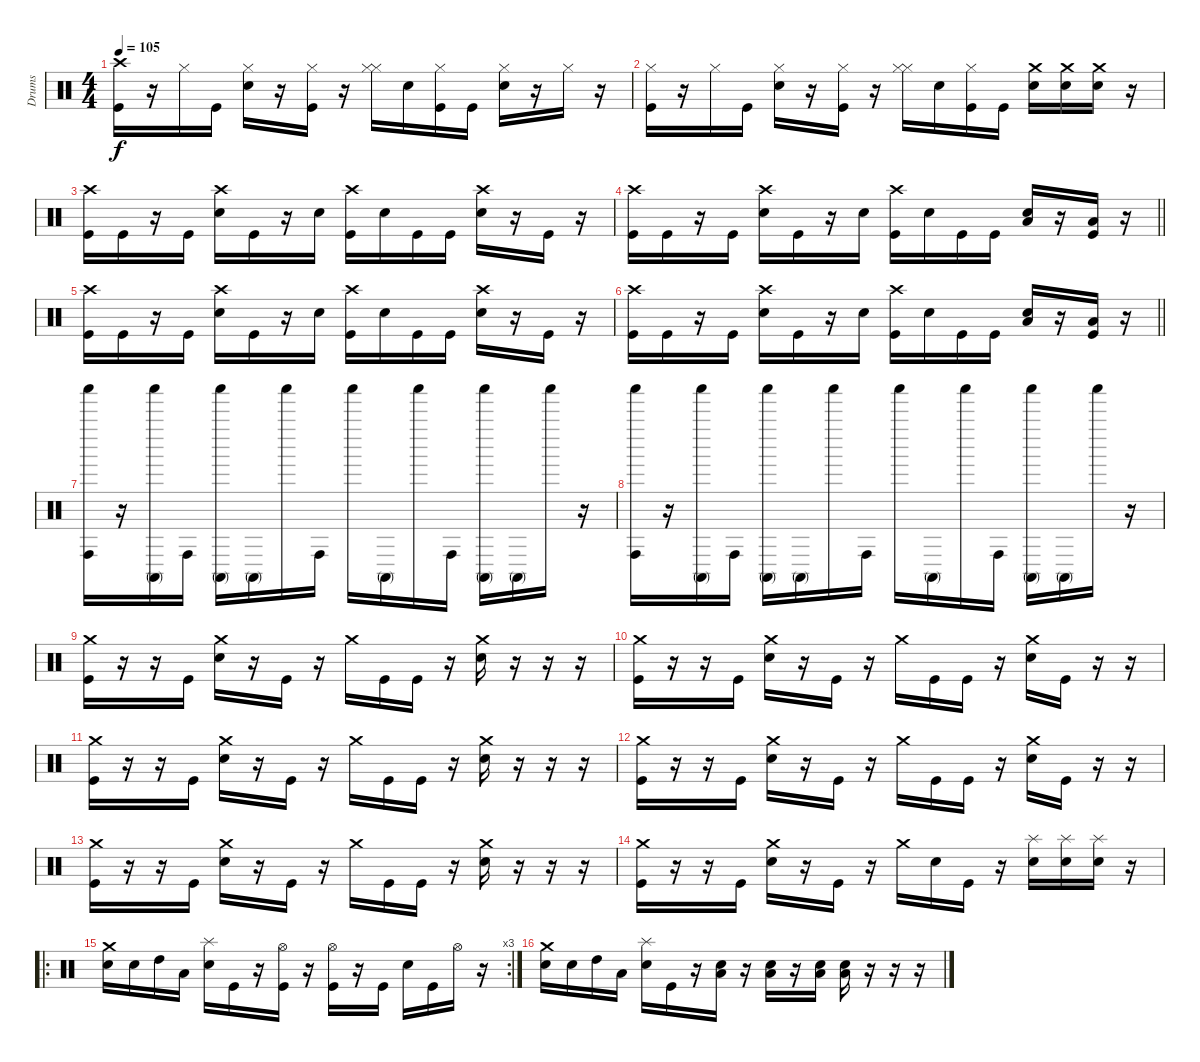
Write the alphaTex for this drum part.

\track ("Drums" "Drums") {instrument percussion}
\staff {score}
\articulation defaults
\ts (4 4)
\tempo 105
\clef neutral
\ks c
("Crash high (hit)" "Kick (hit)").16{dy f} r.16 "Hi-Hat (closed)".16 "Kick (hit)".16 ("Hi-Hat (closed)" "Electric Snare (hit)").16 r.16 ("Hi-Hat (closed)" "Kick (hit)").16 r.16 ("Hi-Hat (closed)" "Hi-Hat (closed)").16 "Electric Snare (hit)".16 ("Hi-Hat (closed)" "Kick (hit)").16 "Kick (hit)".16 ("Hi-Hat (closed)" "Electric Snare (hit)").16 r.16 "Hi-Hat (closed)".16 r.16 |
("Hi-Hat (closed)" "Kick (hit)").16 r.16 "Hi-Hat (closed)".16 "Kick (hit)".16 ("Hi-Hat (closed)" "Electric Snare (hit)").16 r.16 ("Hi-Hat (closed)" "Kick (hit)").16 r.16 ("Hi-Hat (closed)" "Hi-Hat (closed)").16 "Electric Snare (hit)".16 ("Hi-Hat (closed)" "Kick (hit)").16 "Kick (hit)".16 ("Crash medium (hit)" "Electric Snare (hit)").16 ("Crash medium (hit)" "Electric Snare (hit)").16 ("Crash medium (hit)" "Electric Snare (hit)").16 r.16 |
("Crash high (hit)" "Kick (hit)").16 "Kick (hit)".16 r.16 "Kick (hit)".16 ("Crash high (hit)" "Electric Snare (hit)").16 "Kick (hit)".16 r.16 "Electric Snare (hit)".16 ("Crash high (hit)" "Kick (hit)").16 "Electric Snare (hit)".16 "Kick (hit)".16 "Kick (hit)".16 ("Crash high (hit)" "Electric Snare (hit)").16 r.16 "Kick (hit)".16 r.16 |
\barLineRight lightlight
("Crash high (hit)" "Kick (hit)").16 "Kick (hit)".16 r.16 "Kick (hit)".16 ("Crash high (hit)" "Electric Snare (hit)").16 "Kick (hit)".16 r.16 "Electric Snare (hit)".16 ("Crash high (hit)" "Kick (hit)").16 "Electric Snare (hit)".16 "Kick (hit)".16 "Kick (hit)".16 ("Low Floor Tom (hit)" "Electric Snare (hit)").16 r.16 ("Low Floor Tom (hit)" "Kick (hit)").16 r.16 |
("Crash high (hit)" "Kick (hit)").16 "Kick (hit)".16 r.16 "Kick (hit)".16 ("Crash high (hit)" "Electric Snare (hit)").16 "Kick (hit)".16 r.16 "Electric Snare (hit)".16 ("Crash high (hit)" "Kick (hit)").16 "Electric Snare (hit)".16 "Kick (hit)".16 "Kick (hit)".16 ("Crash high (hit)" "Electric Snare (hit)").16 r.16 "Kick (hit)".16 r.16 |
\barLineRight lightlight
("Crash high (hit)" "Kick (hit)").16 "Kick (hit)".16 r.16 "Kick (hit)".16 ("Crash high (hit)" "Electric Snare (hit)").16 "Kick (hit)".16 r.16 "Electric Snare (hit)".16 ("Crash high (hit)" "Kick (hit)").16 "Electric Snare (hit)".16 "Kick (hit)".16 "Kick (hit)".16 ("Low Floor Tom (hit)" "Electric Snare (hit)").16 r.16 ("Low Floor Tom (hit)" "Kick (hit)").16 r.16 |
("Shaker (hit)" "Conga high (hit)").16{volume 16} r.16 ("Shaker (hit)" "Conga high (mute)").16 "Conga high (hit)".16 ("Shaker (hit)" "Conga high (mute)").16 "Conga high (mute)".16 "Shaker (hit)".16 "Conga high (hit)".16 "Shaker (hit)".16 "Conga high (mute)".16 "Shaker (hit)".16 "Conga high (hit)".16 ("Shaker (hit)" "Conga high (mute)").16 "Conga high (mute)".16 "Shaker (hit)".16 r.16 |
("Shaker (hit)" "Conga high (hit)").16{volume 16} r.16 ("Shaker (hit)" "Conga high (mute)").16 "Conga high (hit)".16 ("Shaker (hit)" "Conga high (mute)").16 "Conga high (mute)".16 "Shaker (hit)".16 "Conga high (hit)".16 "Shaker (hit)".16 "Conga high (mute)".16 "Shaker (hit)".16 "Conga high (hit)".16 ("Shaker (hit)" "Conga high (mute)").16 "Conga high (mute)".16 "Shaker (hit)".16 r.16 |
("Crash medium (hit)" "Kick (hit)").16{volume 13} r.16 r.16 "Kick (hit)".16 ("Crash medium (hit)" "Electric Snare (hit)").16 r.16 "Kick (hit)".16 r.16 "Crash medium (hit)".16 "Kick (hit)".16 "Kick (hit)".16 r.16 ("Crash medium (hit)" "Electric Snare (hit)").16 r.16 r.16 r.16 |
("Crash medium (hit)" "Kick (hit)").16 r.16 r.16 "Kick (hit)".16 ("Crash medium (hit)" "Electric Snare (hit)").16 r.16 "Kick (hit)".16 r.16 "Crash medium (hit)".16 "Kick (hit)".16 "Kick (hit)".16 r.16 ("Crash medium (hit)" "Electric Snare (hit)").16 "Kick (hit)".16 r.16 r.16 |
("Crash medium (hit)" "Kick (hit)").16 r.16 r.16 "Kick (hit)".16 ("Crash medium (hit)" "Electric Snare (hit)").16 r.16 "Kick (hit)".16 r.16 "Crash medium (hit)".16 "Kick (hit)".16 "Kick (hit)".16 r.16 ("Crash medium (hit)" "Electric Snare (hit)").16 r.16 r.16 r.16 |
("Crash medium (hit)" "Kick (hit)").16 r.16 r.16 "Kick (hit)".16 ("Crash medium (hit)" "Electric Snare (hit)").16 r.16 "Kick (hit)".16 r.16 "Crash medium (hit)".16 "Kick (hit)".16 "Kick (hit)".16 r.16 ("Crash medium (hit)" "Electric Snare (hit)").16 "Kick (hit)".16 r.16 r.16 |
("Crash medium (hit)" "Kick (hit)").16 r.16 r.16 "Kick (hit)".16 ("Crash medium (hit)" "Electric Snare (hit)").16 r.16 "Kick (hit)".16 r.16 "Crash medium (hit)".16 "Kick (hit)".16 "Kick (hit)".16 r.16 ("Crash medium (hit)" "Electric Snare (hit)").16 r.16 r.16 r.16 |
("Crash medium (hit)" "Kick (hit)").16 r.16 r.16 "Kick (hit)".16 ("Crash medium (hit)" "Electric Snare (hit)").16 r.16 "Kick (hit)".16 r.16 "Crash medium (hit)".16 "Electric Snare (hit)".16 "Kick (hit)".16 r.16 ("Splash (hit)" "Electric Snare (hit)").16 ("Splash (hit)" "Electric Snare (hit)").16 ("Splash (hit)" "Electric Snare (hit)").16 r.16 |
\ro
\rc 3
("Crash medium (hit)" "Electric Snare (hit)").16 "Electric Snare (hit)".16 "High Tom (hit)".16 "Low Floor Tom (hit)".16 ("Splash (hit)" "Electric Snare (hit)").16 "Kick (hit)".16 r.16 ("Kick (hit)" "Hi-Hat (open)").16 r.16 ("Kick (hit)" "Hi-Hat (open)").16 r.16 "Kick (hit)".16 "Electric Snare (hit)".16 "Kick (hit)".16 "Hi-Hat (open)".16 r.16 |
("Crash medium (hit)" "Electric Snare (hit)").16 "Electric Snare (hit)".16 "High Tom (hit)".16 "Low Floor Tom (hit)".16 ("Splash (hit)" "Electric Snare (hit)").16 "Kick (hit)".16 r.16 ("Low Floor Tom (hit)" "Electric Snare (hit)").16 r.16 ("Low Floor Tom (hit)" "Electric Snare (hit)").16 r.16 ("Low Floor Tom (hit)" "Electric Snare (hit)").16 ("Low Floor Tom (hit)" "Electric Snare (hit)").16 r.16 r.16 r.16
